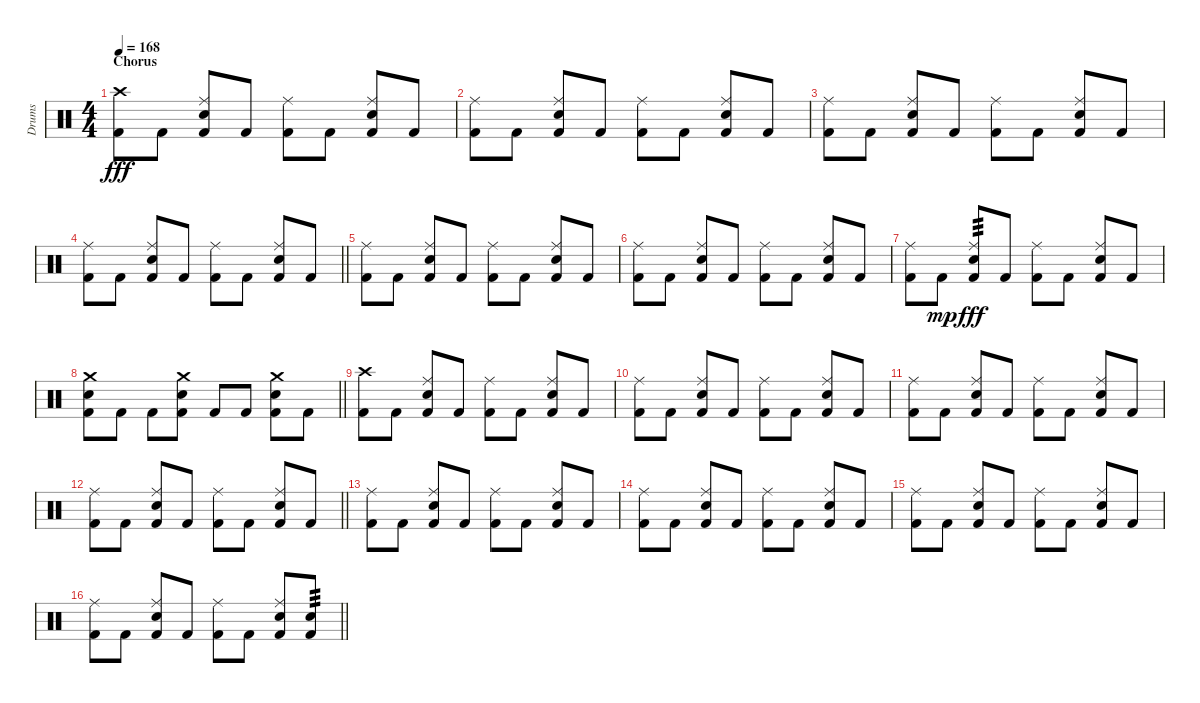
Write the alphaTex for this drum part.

\track ("Drums" "Drums") {instrument percussion}
\staff {score}
\articulation defaults
\ts (4 4)
\section ("" "Chorus")
\tempo 168
\clef neutral
\ks c
("Crash high (hit)" "Kick (hit) 2").8{dy fff} "Kick (hit) 2".8 ("Ride (middle)" "Snare (hit) 2" "Kick (hit) 2").8 "Kick (hit) 2".8 ("Ride (middle)" "Kick (hit) 2").8 "Kick (hit) 2".8 ("Ride (middle)" "Snare (hit) 2" "Kick (hit) 2").8 "Kick (hit) 2".8 |
("Ride (middle)" "Kick (hit) 2").8 "Kick (hit) 2".8 ("Ride (middle)" "Snare (hit) 2" "Kick (hit) 2").8 "Kick (hit) 2".8 ("Ride (middle)" "Kick (hit) 2").8 "Kick (hit) 2".8 ("Ride (middle)" "Snare (hit) 2" "Kick (hit) 2").8 "Kick (hit) 2".8 |
("Ride (middle)" "Kick (hit) 2").8 "Kick (hit) 2".8 ("Ride (middle)" "Snare (hit) 2" "Kick (hit) 2").8 "Kick (hit) 2".8 ("Ride (middle)" "Kick (hit) 2").8 "Kick (hit) 2".8 ("Ride (middle)" "Snare (hit) 2" "Kick (hit) 2").8 "Kick (hit) 2".8 |
\barLineRight lightlight
("Ride (middle)" "Kick (hit) 2").8 "Kick (hit) 2".8 ("Ride (middle)" "Snare (hit) 2" "Kick (hit) 2").8 "Kick (hit) 2".8 ("Ride (middle)" "Kick (hit) 2").8 "Kick (hit) 2".8 ("Ride (middle)" "Snare (hit) 2" "Kick (hit) 2").8 "Kick (hit) 2".8 |
("Ride (middle)" "Kick (hit) 2").8 "Kick (hit) 2".8 ("Ride (middle)" "Snare (hit) 2" "Kick (hit) 2").8 "Kick (hit) 2".8 ("Ride (middle)" "Kick (hit) 2").8 "Kick (hit) 2".8 ("Ride (middle)" "Snare (hit) 2" "Kick (hit) 2").8 "Kick (hit) 2".8 |
("Ride (middle)" "Kick (hit) 2").8 "Kick (hit) 2".8 ("Ride (middle)" "Snare (hit) 2" "Kick (hit) 2").8 "Kick (hit) 2".8 ("Ride (middle)" "Kick (hit) 2").8 "Kick (hit) 2".8 ("Ride (middle)" "Snare (hit) 2" "Kick (hit) 2").8 "Kick (hit) 2".8 |
("Ride (middle)" "Kick (hit) 2").8 "Kick (hit) 2".8{dy mp} ("Ride (middle)" "Snare (hit) 2" "Kick (hit) 2").8{tp 3 dy fff} "Kick (hit) 2".8 ("Ride (middle)" "Kick (hit) 2").8 "Kick (hit) 2".8 ("Ride (middle)" "Snare (hit) 2" "Kick (hit) 2").8 "Kick (hit) 2".8 |
\barLineRight lightlight
("Crash medium (hit)" "Snare (hit) 2" "Kick (hit) 2").8 "Kick (hit) 2".8 "Kick (hit) 2".8 ("Crash medium (hit)" "Snare (hit) 2" "Kick (hit) 2").8 "Kick (hit) 2".8 "Kick (hit) 2".8 ("Crash medium (hit)" "Snare (hit) 2" "Kick (hit) 2").8 "Kick (hit) 2".8 |
("Crash high (hit)" "Kick (hit) 2").8 "Kick (hit) 2".8 ("Ride (middle)" "Snare (hit) 2" "Kick (hit) 2").8 "Kick (hit) 2".8 ("Ride (middle)" "Kick (hit) 2").8 "Kick (hit) 2".8 ("Ride (middle)" "Snare (hit) 2" "Kick (hit) 2").8 "Kick (hit) 2".8 |
("Ride (middle)" "Kick (hit) 2").8 "Kick (hit) 2".8 ("Ride (middle)" "Snare (hit) 2" "Kick (hit) 2").8 "Kick (hit) 2".8 ("Ride (middle)" "Kick (hit) 2").8 "Kick (hit) 2".8 ("Ride (middle)" "Snare (hit) 2" "Kick (hit) 2").8 "Kick (hit) 2".8 |
("Ride (middle)" "Kick (hit) 2").8 "Kick (hit) 2".8 ("Ride (middle)" "Snare (hit) 2" "Kick (hit) 2").8 "Kick (hit) 2".8 ("Ride (middle)" "Kick (hit) 2").8 "Kick (hit) 2".8 ("Ride (middle)" "Snare (hit) 2" "Kick (hit) 2").8 "Kick (hit) 2".8 |
\barLineRight lightlight
("Ride (middle)" "Kick (hit) 2").8 "Kick (hit) 2".8 ("Ride (middle)" "Snare (hit) 2" "Kick (hit) 2").8 "Kick (hit) 2".8 ("Ride (middle)" "Kick (hit) 2").8 "Kick (hit) 2".8 ("Ride (middle)" "Snare (hit) 2" "Kick (hit) 2").8 "Kick (hit) 2".8 |
("Ride (middle)" "Kick (hit) 2").8 "Kick (hit) 2".8 ("Ride (middle)" "Snare (hit) 2" "Kick (hit) 2").8 "Kick (hit) 2".8 ("Ride (middle)" "Kick (hit) 2").8 "Kick (hit) 2".8 ("Ride (middle)" "Snare (hit) 2" "Kick (hit) 2").8 "Kick (hit) 2".8 |
("Ride (middle)" "Kick (hit) 2").8 "Kick (hit) 2".8 ("Ride (middle)" "Snare (hit) 2" "Kick (hit) 2").8 "Kick (hit) 2".8 ("Ride (middle)" "Kick (hit) 2").8 "Kick (hit) 2".8 ("Ride (middle)" "Snare (hit) 2" "Kick (hit) 2").8 "Kick (hit) 2".8 |
("Ride (middle)" "Kick (hit) 2").8 "Kick (hit) 2".8 ("Ride (middle)" "Snare (hit) 2" "Kick (hit) 2").8 "Kick (hit) 2".8 ("Ride (middle)" "Kick (hit) 2").8 "Kick (hit) 2".8 ("Ride (middle)" "Snare (hit) 2" "Kick (hit) 2").8 "Kick (hit) 2".8 |
\barLineRight lightlight
("Ride (middle)" "Kick (hit) 2").8 "Kick (hit) 2".8 ("Ride (middle)" "Snare (hit) 2" "Kick (hit) 2").8 "Kick (hit) 2".8 ("Ride (middle)" "Kick (hit) 2").8 "Kick (hit) 2".8 ("Ride (middle)" "Snare (hit) 2" "Kick (hit) 2").8 ("Snare (hit) 2" "Kick (hit) 2").8{tp 3}
